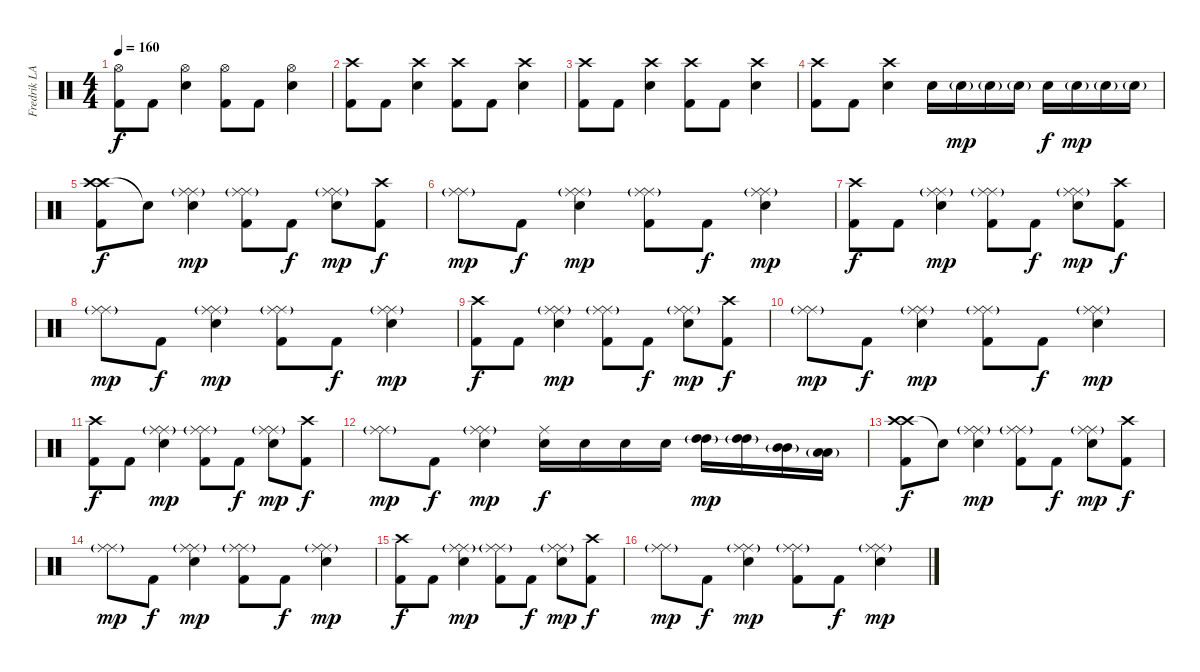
\track ("Fredrik LARZON" "Fredrik LA") {instrument percussion}
\staff {score}
\articulation defaults
\ts (4 4)
\tempo 160
\clef neutral
\ks c
("Hi-Hat (open)" "Kick (hit) 2").8{dy f} "Kick (hit) 2".8 ("Hi-Hat (open)" "Electric Snare (hit)").4 ("Hi-Hat (open)" "Kick (hit) 2").8 "Kick (hit) 2".8 ("Hi-Hat (open)" "Electric Snare (hit)").4 |
("Crash high (hit)" "Kick (hit) 2").8 "Kick (hit) 2".8 ("Crash high (hit)" "Electric Snare (hit)").4 ("Crash high (hit)" "Kick (hit) 2").8 "Kick (hit) 2".8 ("Crash high (hit)" "Electric Snare (hit)").4 |
("Crash high (hit)" "Kick (hit) 2").8 "Kick (hit) 2".8 ("Crash high (hit)" "Electric Snare (hit)").4 ("Crash high (hit)" "Kick (hit) 2").8 "Kick (hit) 2".8 ("Crash high (hit)" "Electric Snare (hit)").4 |
("Crash high (hit)" "Kick (hit) 2").8 "Kick (hit) 2".8 ("Crash high (hit)" "Electric Snare (hit)").4 "Electric Snare (hit)".16 "Electric Snare (hit)"{g}.16{dy mp} "Electric Snare (hit)"{g}.16 "Electric Snare (hit)"{g}.16 "Electric Snare (hit)".16{dy f} "Electric Snare (hit)"{g}.16{dy mp} "Electric Snare (hit)"{g}.16 "Electric Snare (hit)"{g}.16 |
("Crash high (hit)" "Crash high (hit)" "Kick (hit) 2").8{dy f} "Snare (hit)"{t}.8 ("Ride (middle)" "Electric Snare (hit)" "Ride (middle)"{g}).4{dy mp} ("Ride (middle)" "Ride (middle)"{g} "Kick (hit) 2").8 "Kick (hit) 2".8{dy f} ("Ride (middle)" "Electric Snare (hit)" "Ride (middle)"{g}).8{dy mp} ("Crash high (hit)" "Kick (hit) 2").8{dy f} |
("Ride (middle)" "Ride (middle)"{g}).8{dy mp} "Kick (hit) 2".8{dy f} ("Ride (middle)" "Electric Snare (hit)" "Ride (middle)"{g}).4{dy mp} ("Ride (middle)" "Ride (middle)"{g} "Kick (hit) 2").8 "Kick (hit) 2".8{dy f} ("Ride (middle)" "Electric Snare (hit)" "Ride (middle)"{g}).4{dy mp} |
("Crash high (hit)" "Kick (hit) 2").8{dy f} "Kick (hit) 2".8 ("Ride (middle)" "Electric Snare (hit)" "Ride (middle)"{g}).4{dy mp} ("Ride (middle)" "Ride (middle)"{g} "Kick (hit) 2").8 "Kick (hit) 2".8{dy f} ("Ride (middle)" "Electric Snare (hit)" "Ride (middle)"{g}).8{dy mp} ("Crash high (hit)" "Kick (hit) 2").8{dy f} |
("Ride (middle)" "Ride (middle)"{g}).8{dy mp} "Kick (hit) 2".8{dy f} ("Ride (middle)" "Electric Snare (hit)" "Ride (middle)"{g}).4{dy mp} ("Ride (middle)" "Ride (middle)"{g} "Kick (hit) 2").8 "Kick (hit) 2".8{dy f} ("Ride (middle)" "Electric Snare (hit)" "Ride (middle)"{g}).4{dy mp} |
("Crash high (hit)" "Kick (hit) 2").8{dy f} "Kick (hit) 2".8 ("Ride (middle)" "Electric Snare (hit)" "Ride (middle)"{g}).4{dy mp} ("Ride (middle)" "Ride (middle)"{g} "Kick (hit) 2").8 "Kick (hit) 2".8{dy f} ("Ride (middle)" "Electric Snare (hit)" "Ride (middle)"{g}).8{dy mp} ("Crash high (hit)" "Kick (hit) 2").8{dy f} |
("Ride (middle)" "Ride (middle)"{g}).8{dy mp} "Kick (hit) 2".8{dy f} ("Ride (middle)" "Electric Snare (hit)" "Ride (middle)"{g}).4{dy mp} ("Ride (middle)" "Ride (middle)"{g} "Kick (hit) 2").8 "Kick (hit) 2".8{dy f} ("Ride (middle)" "Electric Snare (hit)" "Ride (middle)"{g}).4{dy mp} |
("Crash high (hit)" "Kick (hit) 2").8{dy f} "Kick (hit) 2".8 ("Ride (middle)" "Electric Snare (hit)" "Ride (middle)"{g}).4{dy mp} ("Ride (middle)" "Ride (middle)"{g} "Kick (hit) 2").8 "Kick (hit) 2".8{dy f} ("Ride (middle)" "Electric Snare (hit)" "Ride (middle)"{g}).8{dy mp} ("Crash high (hit)" "Kick (hit) 2").8{dy f} |
("Ride (middle)" "Ride (middle)"{g}).8{dy mp} "Kick (hit) 2".8{dy f} ("Ride (middle)" "Electric Snare (hit)" "Ride (middle)"{g}).4{dy mp} ("Ride (middle)" "Electric Snare (hit)").16{dy f} "Electric Snare (hit)".16 "Electric Snare (hit)".16 "Electric Snare (hit)".16 ("High Tom (hit)" "High Tom (hit)"{g}).16{dy mp} ("High Tom (hit)" "High Tom (hit)"{g}).16 ("Mid Tom (hit)" "Mid Tom (hit)"{g}).16 ("Low Tom (hit)" "Low Tom (hit)"{g}).16 |
("Crash high (hit)" "Crash high (hit)" "Kick (hit) 2").8{dy f} "Snare (hit)"{t}.8 ("Ride (middle)" "Electric Snare (hit)" "Ride (middle)"{g}).4{dy mp} ("Ride (middle)" "Ride (middle)"{g} "Kick (hit) 2").8 "Kick (hit) 2".8{dy f} ("Ride (middle)" "Electric Snare (hit)" "Ride (middle)"{g}).8{dy mp} ("Crash high (hit)" "Kick (hit) 2").8{dy f} |
("Ride (middle)" "Ride (middle)"{g}).8{dy mp} "Kick (hit) 2".8{dy f} ("Ride (middle)" "Electric Snare (hit)" "Ride (middle)"{g}).4{dy mp} ("Ride (middle)" "Ride (middle)"{g} "Kick (hit) 2").8 "Kick (hit) 2".8{dy f} ("Ride (middle)" "Electric Snare (hit)" "Ride (middle)"{g}).4{dy mp} |
("Crash high (hit)" "Kick (hit) 2").8{dy f} "Kick (hit) 2".8 ("Ride (middle)" "Electric Snare (hit)" "Ride (middle)"{g}).4{dy mp} ("Ride (middle)" "Ride (middle)"{g} "Kick (hit) 2").8 "Kick (hit) 2".8{dy f} ("Ride (middle)" "Electric Snare (hit)" "Ride (middle)"{g}).8{dy mp} ("Crash high (hit)" "Kick (hit) 2").8{dy f} |
("Ride (middle)" "Ride (middle)"{g}).8{dy mp} "Kick (hit) 2".8{dy f} ("Ride (middle)" "Electric Snare (hit)" "Ride (middle)"{g}).4{dy mp} ("Ride (middle)" "Ride (middle)"{g} "Kick (hit) 2").8 "Kick (hit) 2".8{dy f} ("Ride (middle)" "Electric Snare (hit)" "Ride (middle)"{g}).4{dy mp}
